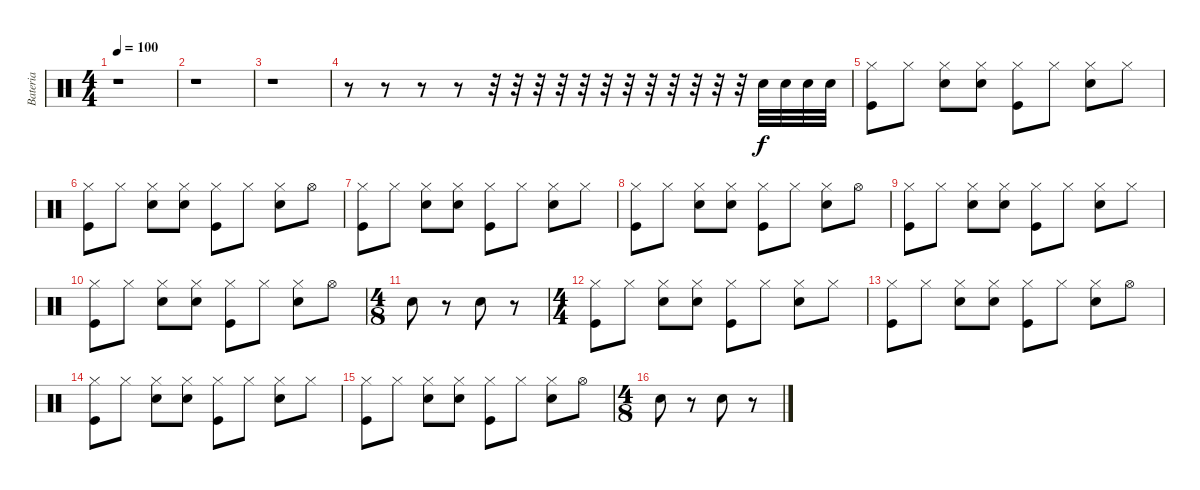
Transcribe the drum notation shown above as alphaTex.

\track ("Bateria" "Bateria") {instrument percussion}
\staff {score}
\articulation defaults
\ts (4 4)
\tempo 100
\clef neutral
\ks c
r.1{dy f} |
r.1 |
r.1 |
r.8 r.8 r.8 r.8 r.32 r.32 r.32 r.32 r.32 r.32 r.32 r.32 r.32 r.32 r.32 r.32 "Snare (hit) 2".32 "Snare (hit) 2".32 "Snare (hit) 2".32 "Snare (hit) 2".32 |
("Hi-Hat (closed)" "Kick (hit)").8 "Hi-Hat (closed)".8 ("Hi-Hat (closed)" "Snare (hit) 2").8 ("Hi-Hat (closed)" "Snare (hit) 2").8 ("Hi-Hat (closed)" "Kick (hit)").8 "Hi-Hat (closed)".8 ("Hi-Hat (closed)" "Snare (hit) 2").8 "Hi-Hat (closed)".8 |
("Hi-Hat (closed)" "Kick (hit)").8 "Hi-Hat (closed)".8 ("Hi-Hat (closed)" "Snare (hit) 2").8 ("Hi-Hat (closed)" "Snare (hit) 2").8 ("Hi-Hat (closed)" "Kick (hit)").8 "Hi-Hat (closed)".8 ("Hi-Hat (closed)" "Snare (hit) 2").8 "Hi-Hat (open)".8 |
("Hi-Hat (closed)" "Kick (hit)").8 "Hi-Hat (closed)".8 ("Hi-Hat (closed)" "Snare (hit) 2").8 ("Hi-Hat (closed)" "Snare (hit) 2").8 ("Hi-Hat (closed)" "Kick (hit)").8 "Hi-Hat (closed)".8 ("Hi-Hat (closed)" "Snare (hit) 2").8 "Hi-Hat (closed)".8 |
("Hi-Hat (closed)" "Kick (hit)").8 "Hi-Hat (closed)".8 ("Hi-Hat (closed)" "Snare (hit) 2").8 ("Hi-Hat (closed)" "Snare (hit) 2").8 ("Hi-Hat (closed)" "Kick (hit)").8 "Hi-Hat (closed)".8 ("Hi-Hat (closed)" "Snare (hit) 2").8 "Hi-Hat (open)".8 |
("Hi-Hat (closed)" "Kick (hit)").8 "Hi-Hat (closed)".8 ("Hi-Hat (closed)" "Snare (hit) 2").8 ("Hi-Hat (closed)" "Snare (hit) 2").8 ("Hi-Hat (closed)" "Kick (hit)").8 "Hi-Hat (closed)".8 ("Hi-Hat (closed)" "Snare (hit) 2").8 "Hi-Hat (closed)".8 |
("Hi-Hat (closed)" "Kick (hit)").8 "Hi-Hat (closed)".8 ("Hi-Hat (closed)" "Snare (hit) 2").8 ("Hi-Hat (closed)" "Snare (hit) 2").8 ("Hi-Hat (closed)" "Kick (hit)").8 "Hi-Hat (closed)".8 ("Hi-Hat (closed)" "Snare (hit) 2").8 "Hi-Hat (open)".8 |
\ts (4 8)
"Snare (hit) 2".8 r.8 "Snare (hit) 2".8 r.8 |
\ts (4 4)
("Hi-Hat (closed)" "Kick (hit)").8 "Hi-Hat (closed)".8 ("Hi-Hat (closed)" "Snare (hit) 2").8 ("Hi-Hat (closed)" "Snare (hit) 2").8 ("Hi-Hat (closed)" "Kick (hit)").8 "Hi-Hat (closed)".8 ("Hi-Hat (closed)" "Snare (hit) 2").8 "Hi-Hat (closed)".8 |
("Hi-Hat (closed)" "Kick (hit)").8 "Hi-Hat (closed)".8 ("Hi-Hat (closed)" "Snare (hit) 2").8 ("Hi-Hat (closed)" "Snare (hit) 2").8 ("Hi-Hat (closed)" "Kick (hit)").8 "Hi-Hat (closed)".8 ("Hi-Hat (closed)" "Snare (hit) 2").8 "Hi-Hat (open)".8 |
("Hi-Hat (closed)" "Kick (hit)").8 "Hi-Hat (closed)".8 ("Hi-Hat (closed)" "Snare (hit) 2").8 ("Hi-Hat (closed)" "Snare (hit) 2").8 ("Hi-Hat (closed)" "Kick (hit)").8 "Hi-Hat (closed)".8 ("Hi-Hat (closed)" "Snare (hit) 2").8 "Hi-Hat (closed)".8 |
("Hi-Hat (closed)" "Kick (hit)").8 "Hi-Hat (closed)".8 ("Hi-Hat (closed)" "Snare (hit) 2").8 ("Hi-Hat (closed)" "Snare (hit) 2").8 ("Hi-Hat (closed)" "Kick (hit)").8 "Hi-Hat (closed)".8 ("Hi-Hat (closed)" "Snare (hit) 2").8 "Hi-Hat (open)".8 |
\ts (4 8)
"Snare (hit) 2".8 r.8 "Snare (hit) 2".8 r.8
